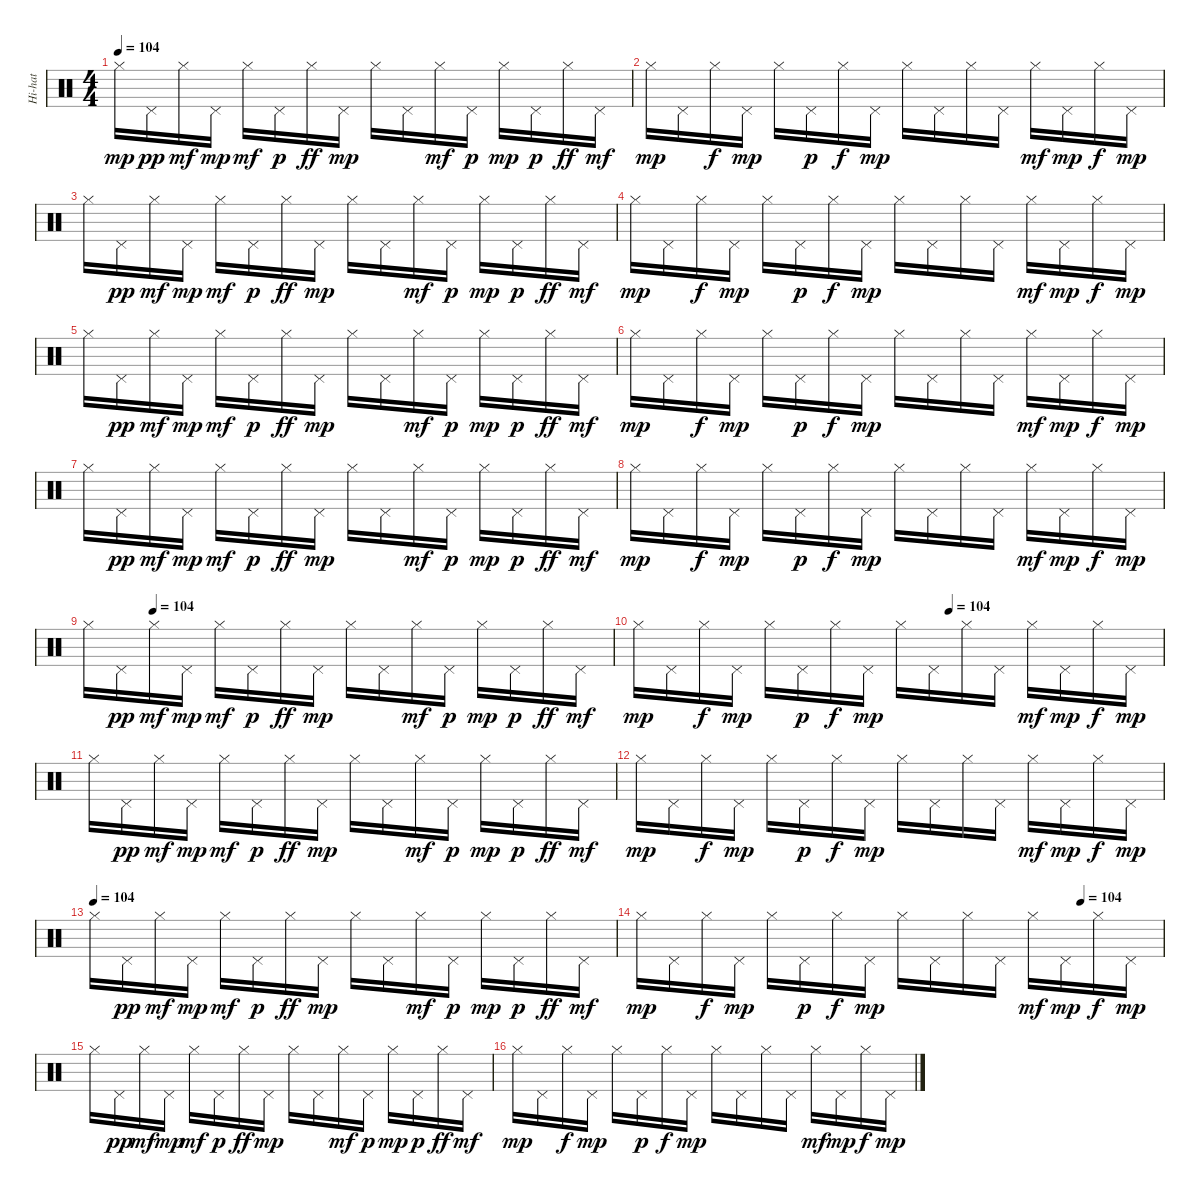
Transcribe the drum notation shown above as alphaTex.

\track ("Hi-hat" "Hi-hat") {instrument percussion}
\staff {score}
\articulation defaults
\ts (4 4)
\tempo 104
\clef neutral
\ks c "Hi-Hat (closed)".16{dy mp} "Pedal Hi-Hat (hit)".16{dy pp} "Hi-Hat (closed)".16{dy mf} "Pedal Hi-Hat (hit)".16{dy mp} "Hi-Hat (closed)".16{dy mf} "Pedal Hi-Hat (hit)".16{dy p} "Hi-Hat (closed)".16{dy ff} "Pedal Hi-Hat (hit)".16{dy mp} "Hi-Hat (closed)".16 "Pedal Hi-Hat (hit)".16 "Hi-Hat (closed)".16{dy mf} "Pedal Hi-Hat (hit)".16{dy p} "Hi-Hat (closed)".16{dy mp} "Pedal Hi-Hat (hit)".16{dy p} "Hi-Hat (closed)".16{dy ff} "Pedal Hi-Hat (hit)".16{dy mf}
|
"Hi-Hat (closed)".16{dy mp} "Pedal Hi-Hat (hit)".16 "Hi-Hat (closed)".16{dy f} "Pedal Hi-Hat (hit)".16{dy mp} "Hi-Hat (closed)".16 "Pedal Hi-Hat (hit)".16{dy p} "Hi-Hat (closed)".16{dy f} "Pedal Hi-Hat (hit)".16{dy mp} "Hi-Hat (closed)".16 "Pedal Hi-Hat (hit)".16 "Hi-Hat (closed)".16 "Pedal Hi-Hat (hit)".16 "Hi-Hat (closed)".16{dy mf} "Pedal Hi-Hat (hit)".16{dy mp} "Hi-Hat (closed)".16{dy f} "Pedal Hi-Hat (hit)".16{dy mp} |
"Hi-Hat (closed)".16 "Pedal Hi-Hat (hit)".16{dy pp} "Hi-Hat (closed)".16{dy mf} "Pedal Hi-Hat (hit)".16{dy mp} "Hi-Hat (closed)".16{dy mf} "Pedal Hi-Hat (hit)".16{dy p} "Hi-Hat (closed)".16{dy ff} "Pedal Hi-Hat (hit)".16{dy mp} "Hi-Hat (closed)".16 "Pedal Hi-Hat (hit)".16 "Hi-Hat (closed)".16{dy mf} "Pedal Hi-Hat (hit)".16{dy p} "Hi-Hat (closed)".16{dy mp} "Pedal Hi-Hat (hit)".16{dy p} "Hi-Hat (closed)".16{dy ff} "Pedal Hi-Hat (hit)".16{dy mf} |
"Hi-Hat (closed)".16{dy mp} "Pedal Hi-Hat (hit)".16 "Hi-Hat (closed)".16{dy f} "Pedal Hi-Hat (hit)".16{dy mp} "Hi-Hat (closed)".16 "Pedal Hi-Hat (hit)".16{dy p} "Hi-Hat (closed)".16{dy f} "Pedal Hi-Hat (hit)".16{dy mp} "Hi-Hat (closed)".16 "Pedal Hi-Hat (hit)".16 "Hi-Hat (closed)".16 "Pedal Hi-Hat (hit)".16 "Hi-Hat (closed)".16{dy mf} "Pedal Hi-Hat (hit)".16{dy mp} "Hi-Hat (closed)".16{dy f} "Pedal Hi-Hat (hit)".16{dy mp} |
"Hi-Hat (closed)".16 "Pedal Hi-Hat (hit)".16{dy pp} "Hi-Hat (closed)".16{dy mf} "Pedal Hi-Hat (hit)".16{dy mp} "Hi-Hat (closed)".16{dy mf} "Pedal Hi-Hat (hit)".16{dy p} "Hi-Hat (closed)".16{dy ff} "Pedal Hi-Hat (hit)".16{dy mp} "Hi-Hat (closed)".16 "Pedal Hi-Hat (hit)".16 "Hi-Hat (closed)".16{dy mf} "Pedal Hi-Hat (hit)".16{dy p} "Hi-Hat (closed)".16{dy mp} "Pedal Hi-Hat (hit)".16{dy p} "Hi-Hat (closed)".16{dy ff} "Pedal Hi-Hat (hit)".16{dy mf} |
"Hi-Hat (closed)".16{dy mp} "Pedal Hi-Hat (hit)".16 "Hi-Hat (closed)".16{dy f} "Pedal Hi-Hat (hit)".16{dy mp} "Hi-Hat (closed)".16 "Pedal Hi-Hat (hit)".16{dy p} "Hi-Hat (closed)".16{dy f} "Pedal Hi-Hat (hit)".16{dy mp} "Hi-Hat (closed)".16 "Pedal Hi-Hat (hit)".16 "Hi-Hat (closed)".16 "Pedal Hi-Hat (hit)".16 "Hi-Hat (closed)".16{dy mf} "Pedal Hi-Hat (hit)".16{dy mp} "Hi-Hat (closed)".16{dy f} "Pedal Hi-Hat (hit)".16{dy mp} |
"Hi-Hat (closed)".16 "Pedal Hi-Hat (hit)".16{dy pp} "Hi-Hat (closed)".16{dy mf} "Pedal Hi-Hat (hit)".16{dy mp} "Hi-Hat (closed)".16{dy mf} "Pedal Hi-Hat (hit)".16{dy p} "Hi-Hat (closed)".16{dy ff} "Pedal Hi-Hat (hit)".16{dy mp} "Hi-Hat (closed)".16 "Pedal Hi-Hat (hit)".16 "Hi-Hat (closed)".16{dy mf} "Pedal Hi-Hat (hit)".16{dy p} "Hi-Hat (closed)".16{dy mp} "Pedal Hi-Hat (hit)".16{dy p} "Hi-Hat (closed)".16{dy ff} "Pedal Hi-Hat (hit)".16{dy mf} |
"Hi-Hat (closed)".16{dy mp} "Pedal Hi-Hat (hit)".16 "Hi-Hat (closed)".16{dy f} "Pedal Hi-Hat (hit)".16{dy mp} "Hi-Hat (closed)".16 "Pedal Hi-Hat (hit)".16{dy p} "Hi-Hat (closed)".16{dy f} "Pedal Hi-Hat (hit)".16{dy mp} "Hi-Hat (closed)".16 "Pedal Hi-Hat (hit)".16 "Hi-Hat (closed)".16 "Pedal Hi-Hat (hit)".16 "Hi-Hat (closed)".16{dy mf} "Pedal Hi-Hat (hit)".16{dy mp} "Hi-Hat (closed)".16{dy f} "Pedal Hi-Hat (hit)".16{dy mp} |
\tempo (104 0.125)
"Hi-Hat (closed)".16 "Pedal Hi-Hat (hit)".16{dy pp} "Hi-Hat (closed)".16{dy mf} "Pedal Hi-Hat (hit)".16{dy mp} "Hi-Hat (closed)".16{dy mf} "Pedal Hi-Hat (hit)".16{dy p} "Hi-Hat (closed)".16{dy ff} "Pedal Hi-Hat (hit)".16{dy mp} "Hi-Hat (closed)".16 "Pedal Hi-Hat (hit)".16 "Hi-Hat (closed)".16{dy mf} "Pedal Hi-Hat (hit)".16{dy p} "Hi-Hat (closed)".16{dy mp} "Pedal Hi-Hat (hit)".16{dy p} "Hi-Hat (closed)".16{dy ff} "Pedal Hi-Hat (hit)".16{dy mf} |
\tempo (104 0.59375)
"Hi-Hat (closed)".16{dy mp} "Pedal Hi-Hat (hit)".16 "Hi-Hat (closed)".16{dy f} "Pedal Hi-Hat (hit)".16{dy mp} "Hi-Hat (closed)".16 "Pedal Hi-Hat (hit)".16{dy p} "Hi-Hat (closed)".16{dy f} "Pedal Hi-Hat (hit)".16{dy mp} "Hi-Hat (closed)".16 "Pedal Hi-Hat (hit)".16 "Hi-Hat (closed)".16 "Pedal Hi-Hat (hit)".16 "Hi-Hat (closed)".16{dy mf} "Pedal Hi-Hat (hit)".16{dy mp} "Hi-Hat (closed)".16{dy f} "Pedal Hi-Hat (hit)".16{dy mp} |
"Hi-Hat (closed)".16 "Pedal Hi-Hat (hit)".16{dy pp} "Hi-Hat (closed)".16{dy mf} "Pedal Hi-Hat (hit)".16{dy mp} "Hi-Hat (closed)".16{dy mf} "Pedal Hi-Hat (hit)".16{dy p} "Hi-Hat (closed)".16{dy ff} "Pedal Hi-Hat (hit)".16{dy mp} "Hi-Hat (closed)".16 "Pedal Hi-Hat (hit)".16 "Hi-Hat (closed)".16{dy mf} "Pedal Hi-Hat (hit)".16{dy p} "Hi-Hat (closed)".16{dy mp} "Pedal Hi-Hat (hit)".16{dy p} "Hi-Hat (closed)".16{dy ff} "Pedal Hi-Hat (hit)".16{dy mf} |
"Hi-Hat (closed)".16{dy mp} "Pedal Hi-Hat (hit)".16 "Hi-Hat (closed)".16{dy f} "Pedal Hi-Hat (hit)".16{dy mp} "Hi-Hat (closed)".16 "Pedal Hi-Hat (hit)".16{dy p} "Hi-Hat (closed)".16{dy f} "Pedal Hi-Hat (hit)".16{dy mp} "Hi-Hat (closed)".16 "Pedal Hi-Hat (hit)".16 "Hi-Hat (closed)".16 "Pedal Hi-Hat (hit)".16 "Hi-Hat (closed)".16{dy mf} "Pedal Hi-Hat (hit)".16{dy mp} "Hi-Hat (closed)".16{dy f} "Pedal Hi-Hat (hit)".16{dy mp} |
\tempo (104)
"Hi-Hat (closed)".16 "Pedal Hi-Hat (hit)".16{dy pp} "Hi-Hat (closed)".16{dy mf} "Pedal Hi-Hat (hit)".16{dy mp} "Hi-Hat (closed)".16{dy mf} "Pedal Hi-Hat (hit)".16{dy p} "Hi-Hat (closed)".16{dy ff} "Pedal Hi-Hat (hit)".16{dy mp} "Hi-Hat (closed)".16 "Pedal Hi-Hat (hit)".16 "Hi-Hat (closed)".16{dy mf} "Pedal Hi-Hat (hit)".16{dy p} "Hi-Hat (closed)".16{dy mp} "Pedal Hi-Hat (hit)".16{dy p} "Hi-Hat (closed)".16{dy ff} "Pedal Hi-Hat (hit)".16{dy mf} |
\tempo (104 0.84375)
"Hi-Hat (closed)".16{dy mp} "Pedal Hi-Hat (hit)".16 "Hi-Hat (closed)".16{dy f} "Pedal Hi-Hat (hit)".16{dy mp} "Hi-Hat (closed)".16 "Pedal Hi-Hat (hit)".16{dy p} "Hi-Hat (closed)".16{dy f} "Pedal Hi-Hat (hit)".16{dy mp} "Hi-Hat (closed)".16 "Pedal Hi-Hat (hit)".16 "Hi-Hat (closed)".16 "Pedal Hi-Hat (hit)".16 "Hi-Hat (closed)".16{dy mf} "Pedal Hi-Hat (hit)".16{dy mp} "Hi-Hat (closed)".16{dy f} "Pedal Hi-Hat (hit)".16{dy mp} |
"Hi-Hat (closed)".16 "Pedal Hi-Hat (hit)".16{dy pp} "Hi-Hat (closed)".16{dy mf} "Pedal Hi-Hat (hit)".16{dy mp} "Hi-Hat (closed)".16{dy mf} "Pedal Hi-Hat (hit)".16{dy p} "Hi-Hat (closed)".16{dy ff} "Pedal Hi-Hat (hit)".16{dy mp} "Hi-Hat (closed)".16 "Pedal Hi-Hat (hit)".16 "Hi-Hat (closed)".16{dy mf} "Pedal Hi-Hat (hit)".16{dy p} "Hi-Hat (closed)".16{dy mp} "Pedal Hi-Hat (hit)".16{dy p} "Hi-Hat (closed)".16{dy ff} "Pedal Hi-Hat (hit)".16{dy mf} |
"Hi-Hat (closed)".16{dy mp} "Pedal Hi-Hat (hit)".16 "Hi-Hat (closed)".16{dy f} "Pedal Hi-Hat (hit)".16{dy mp} "Hi-Hat (closed)".16 "Pedal Hi-Hat (hit)".16{dy p} "Hi-Hat (closed)".16{dy f} "Pedal Hi-Hat (hit)".16{dy mp} "Hi-Hat (closed)".16 "Pedal Hi-Hat (hit)".16 "Hi-Hat (closed)".16 "Pedal Hi-Hat (hit)".16 "Hi-Hat (closed)".16{dy mf} "Pedal Hi-Hat (hit)".16{dy mp} "Hi-Hat (closed)".16{dy f} "Pedal Hi-Hat (hit)".16{dy mp}
